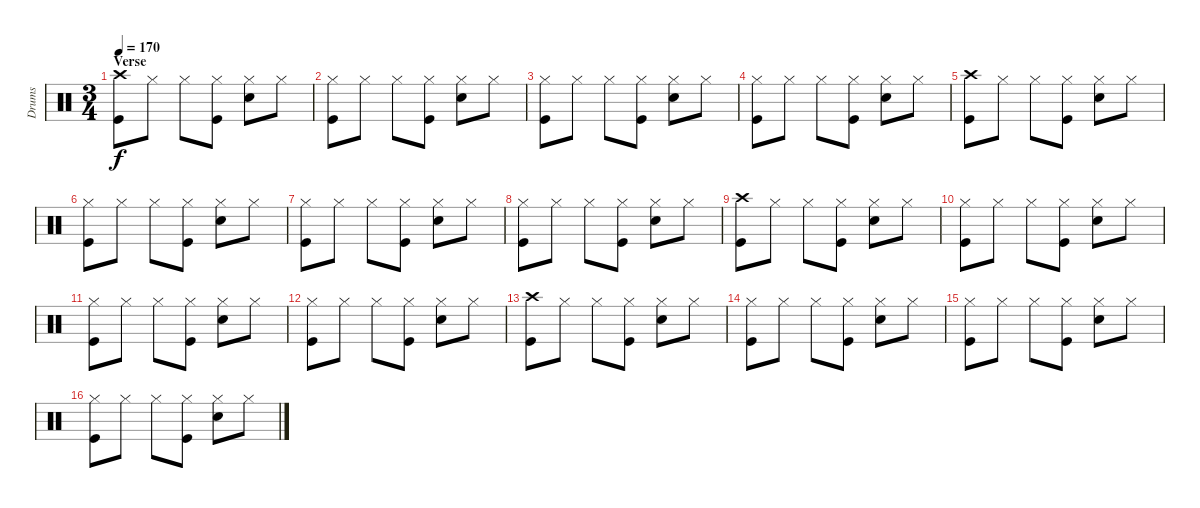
\track ("Drums" "Drums") {instrument percussion}
\staff {score}
\articulation defaults
\ts (3 4)
\section ("" "Verse")
\tempo 170
\clef neutral
\ks c
("Crash high (hit)" "Kick (hit)").8{dy f} "Hi-Hat (closed)".8 "Hi-Hat (closed)".8 ("Hi-Hat (closed)" "Kick (hit)").8 ("Hi-Hat (closed)" "Snare (hit) 2").8 "Hi-Hat (closed)".8 |
("Hi-Hat (closed)" "Kick (hit)").8 "Hi-Hat (closed)".8 "Hi-Hat (closed)".8 ("Hi-Hat (closed)" "Kick (hit)").8 ("Hi-Hat (closed)" "Snare (hit) 2").8 "Hi-Hat (closed)".8 |
("Hi-Hat (closed)" "Kick (hit)").8 "Hi-Hat (closed)".8 "Hi-Hat (closed)".8 ("Hi-Hat (closed)" "Kick (hit)").8 ("Hi-Hat (closed)" "Snare (hit) 2").8 "Hi-Hat (closed)".8 |
("Hi-Hat (closed)" "Kick (hit)").8 "Hi-Hat (closed)".8 "Hi-Hat (closed)".8 ("Hi-Hat (closed)" "Kick (hit)").8 ("Hi-Hat (closed)" "Snare (hit) 2").8 "Hi-Hat (closed)".8 |
("Crash high (hit)" "Kick (hit)").8 "Hi-Hat (closed)".8 "Hi-Hat (closed)".8 ("Hi-Hat (closed)" "Kick (hit)").8 ("Hi-Hat (closed)" "Snare (hit) 2").8 "Hi-Hat (closed)".8 |
("Hi-Hat (closed)" "Kick (hit)").8 "Hi-Hat (closed)".8 "Hi-Hat (closed)".8 ("Hi-Hat (closed)" "Kick (hit)").8 ("Hi-Hat (closed)" "Snare (hit) 2").8 "Hi-Hat (closed)".8 |
("Hi-Hat (closed)" "Kick (hit)").8 "Hi-Hat (closed)".8 "Hi-Hat (closed)".8 ("Hi-Hat (closed)" "Kick (hit)").8 ("Hi-Hat (closed)" "Snare (hit) 2").8 "Hi-Hat (closed)".8 |
("Hi-Hat (closed)" "Kick (hit)").8 "Hi-Hat (closed)".8 "Hi-Hat (closed)".8 ("Hi-Hat (closed)" "Kick (hit)").8 ("Hi-Hat (closed)" "Snare (hit) 2").8 "Hi-Hat (closed)".8 |
("Crash high (hit)" "Kick (hit)").8 "Hi-Hat (closed)".8 "Hi-Hat (closed)".8 ("Hi-Hat (closed)" "Kick (hit)").8 ("Hi-Hat (closed)" "Snare (hit) 2").8 "Hi-Hat (closed)".8 |
("Hi-Hat (closed)" "Kick (hit)").8 "Hi-Hat (closed)".8 "Hi-Hat (closed)".8 ("Hi-Hat (closed)" "Kick (hit)").8 ("Hi-Hat (closed)" "Snare (hit) 2").8 "Hi-Hat (closed)".8 |
("Hi-Hat (closed)" "Kick (hit)").8 "Hi-Hat (closed)".8 "Hi-Hat (closed)".8 ("Hi-Hat (closed)" "Kick (hit)").8 ("Hi-Hat (closed)" "Snare (hit) 2").8 "Hi-Hat (closed)".8 |
("Hi-Hat (closed)" "Kick (hit)").8 "Hi-Hat (closed)".8 "Hi-Hat (closed)".8 ("Hi-Hat (closed)" "Kick (hit)").8 ("Hi-Hat (closed)" "Snare (hit) 2").8 "Hi-Hat (closed)".8 |
("Crash high (hit)" "Kick (hit)").8 "Hi-Hat (closed)".8 "Hi-Hat (closed)".8 ("Hi-Hat (closed)" "Kick (hit)").8 ("Hi-Hat (closed)" "Snare (hit) 2").8 "Hi-Hat (closed)".8 |
("Hi-Hat (closed)" "Kick (hit)").8 "Hi-Hat (closed)".8 "Hi-Hat (closed)".8 ("Hi-Hat (closed)" "Kick (hit)").8 ("Hi-Hat (closed)" "Snare (hit) 2").8 "Hi-Hat (closed)".8 |
("Hi-Hat (closed)" "Kick (hit)").8 "Hi-Hat (closed)".8 "Hi-Hat (closed)".8 ("Hi-Hat (closed)" "Kick (hit)").8 ("Hi-Hat (closed)" "Snare (hit) 2").8 "Hi-Hat (closed)".8 |
("Hi-Hat (closed)" "Kick (hit)").8 "Hi-Hat (closed)".8 "Hi-Hat (closed)".8 ("Hi-Hat (closed)" "Kick (hit)").8 ("Hi-Hat (closed)" "Snare (hit) 2").8 "Hi-Hat (closed)".8
